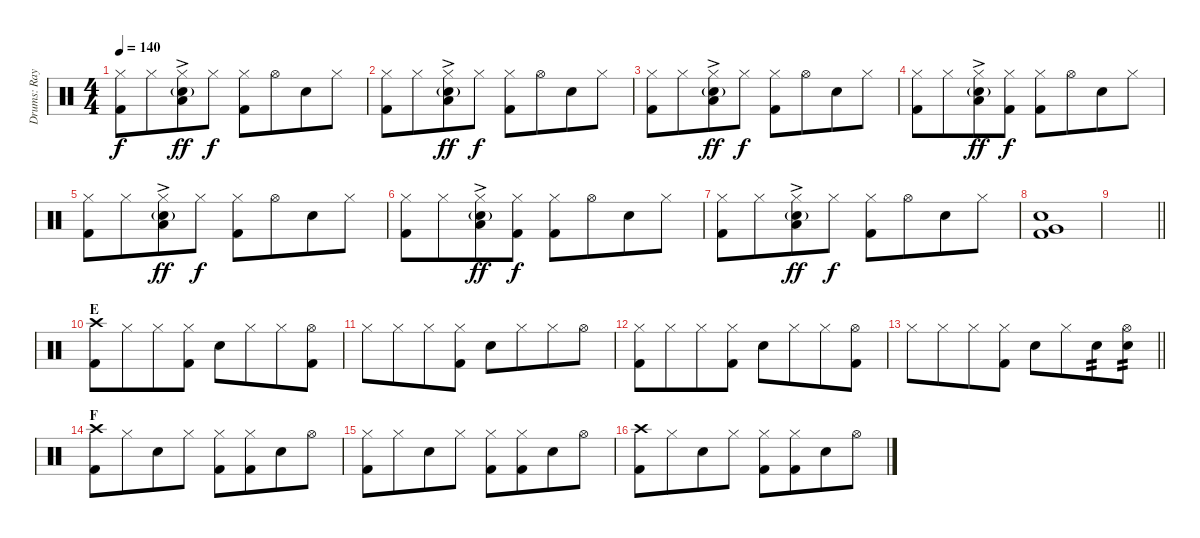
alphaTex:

\track ("Drums: Ray Cooper" "Drums: Ray") {instrument percussion}
\staff {score}
\articulation defaults
\ts (4 4)
\tempo 140
\clef neutral
\ks c
("Hi-Hat (closed)" "Kick (hit) 2").8{dy f} "Hi-Hat (closed)".8{beam merge} ("Hi-Hat (closed)" "Electric Snare (hit)"{g} "Low Floor Tom (hit)"{ac}).8{dy ff} "Hi-Hat (closed)".8{dy f} ("Hi-Hat (closed)" "Kick (hit) 2").8 "Hi-Hat (open)".8{beam merge} "Snare (hit) 2".8 "Hi-Hat (closed)".8 |
("Hi-Hat (closed)" "Kick (hit) 2").8 "Hi-Hat (closed)".8{beam merge} ("Hi-Hat (closed)" "Electric Snare (hit)"{g} "Low Floor Tom (hit)"{ac}).8{dy ff} "Hi-Hat (closed)".8{dy f} ("Hi-Hat (closed)" "Kick (hit) 2").8 "Hi-Hat (open)".8{beam merge} "Snare (hit) 2".8 "Hi-Hat (closed)".8 |
("Hi-Hat (closed)" "Kick (hit) 2").8 "Hi-Hat (closed)".8{beam merge} ("Hi-Hat (closed)" "Electric Snare (hit)"{g} "Low Floor Tom (hit)"{ac}).8{dy ff} "Hi-Hat (closed)".8{dy f} ("Hi-Hat (closed)" "Kick (hit) 2").8 "Hi-Hat (open)".8{beam merge} "Snare (hit) 2".8 "Hi-Hat (closed)".8 |
("Hi-Hat (closed)" "Kick (hit) 2").8 "Hi-Hat (closed)".8{beam merge} ("Hi-Hat (closed)" "Electric Snare (hit)"{g} "Low Floor Tom (hit)"{ac}).8{dy ff} ("Hi-Hat (closed)" "Kick (hit) 2").8{dy f} ("Hi-Hat (closed)" "Kick (hit) 2").8 "Hi-Hat (open)".8{beam merge} "Snare (hit) 2".8 "Hi-Hat (closed)".8 |
("Hi-Hat (closed)" "Kick (hit) 2").8 "Hi-Hat (closed)".8{beam merge} ("Hi-Hat (closed)" "Electric Snare (hit)"{g} "Low Floor Tom (hit)"{ac}).8{dy ff} "Hi-Hat (closed)".8{dy f} ("Hi-Hat (closed)" "Kick (hit) 2").8 "Hi-Hat (open)".8{beam merge} "Snare (hit) 2".8 "Hi-Hat (closed)".8 |
("Hi-Hat (closed)" "Kick (hit) 2").8 "Hi-Hat (closed)".8{beam merge} ("Hi-Hat (closed)" "Electric Snare (hit)"{g} "Low Floor Tom (hit)"{ac}).8{dy ff} ("Hi-Hat (closed)" "Kick (hit) 2").8{dy f} ("Hi-Hat (closed)" "Kick (hit) 2").8 "Hi-Hat (open)".8{beam merge} "Snare (hit) 2".8 "Hi-Hat (closed)".8 |
("Hi-Hat (closed)" "Kick (hit) 2").8 "Hi-Hat (closed)".8{beam merge} ("Hi-Hat (closed)" "Electric Snare (hit)"{g} "Low Floor Tom (hit)"{ac}).8{dy ff} "Hi-Hat (closed)".8{dy f} ("Hi-Hat (closed)" "Kick (hit) 2").8 "Hi-Hat (open)".8{beam merge} "Snare (hit) 2".8 "Hi-Hat (closed)".8 |
("Electric Snare (hit)" "Very Low Tom (hit)" "Kick (hit) 2").1 |
\barLineRight lightlight
|
\section ("" "E")
("Crash high (hit)" "Kick (hit) 2").8 "Hi-Hat (closed)".8{beam merge} "Hi-Hat (closed)".8 ("Hi-Hat (closed)" "Kick (hit) 2").8 "Snare (hit) 2".8 "Hi-Hat (closed)".8{beam merge} "Hi-Hat (closed)".8 ("Hi-Hat (open)" "Kick (hit) 2").8 |
"Hi-Hat (closed)".8 "Hi-Hat (closed)".8{beam merge} "Hi-Hat (closed)".8 ("Hi-Hat (closed)" "Kick (hit) 2").8 "Snare (hit) 2".8 "Hi-Hat (closed)".8{beam merge} "Hi-Hat (closed)".8 "Hi-Hat (open)".8 |
("Hi-Hat (closed)" "Kick (hit) 2").8 "Hi-Hat (closed)".8{beam merge} "Hi-Hat (closed)".8 ("Hi-Hat (closed)" "Kick (hit) 2").8 "Snare (hit) 2".8 "Hi-Hat (closed)".8{beam merge} "Hi-Hat (closed)".8 ("Hi-Hat (open)" "Kick (hit) 2").8 |
\barLineRight lightlight "Hi-Hat (closed)".8 "Hi-Hat (closed)".8{beam merge} "Hi-Hat (closed)".8
("Hi-Hat (closed)" "Kick (hit) 2").8 "Snare (hit) 2".8 "Hi-Hat (closed)".8{beam merge} "Electric Snare (hit)".8{tp 2} ("Hi-Hat (open)" "Snare (hit) 2").8{tp 2} |
\section ("" "F")
("Crash high (hit)" "Kick (hit) 2").8 "Hi-Hat (closed)".8{beam merge} "Electric Snare (hit)".8 "Hi-Hat (closed)".8 ("Hi-Hat (closed)" "Kick (hit) 2").8 ("Hi-Hat (closed)" "Kick (hit) 2").8{beam merge} "Electric Snare (hit)".8 "Hi-Hat (open)".8 |
("Hi-Hat (closed)" "Kick (hit) 2").8 "Hi-Hat (closed)".8{beam merge} "Electric Snare (hit)".8 "Hi-Hat (closed)".8 ("Hi-Hat (closed)" "Kick (hit) 2").8 ("Hi-Hat (closed)" "Kick (hit) 2").8{beam merge} "Electric Snare (hit)".8 "Hi-Hat (open)".8 |
("Crash high (hit)" "Kick (hit) 2").8 "Hi-Hat (closed)".8{beam merge} "Electric Snare (hit)".8 "Hi-Hat (closed)".8 ("Hi-Hat (closed)" "Kick (hit) 2").8 ("Hi-Hat (closed)" "Kick (hit) 2").8{beam merge} "Electric Snare (hit)".8 "Hi-Hat (open)".8
